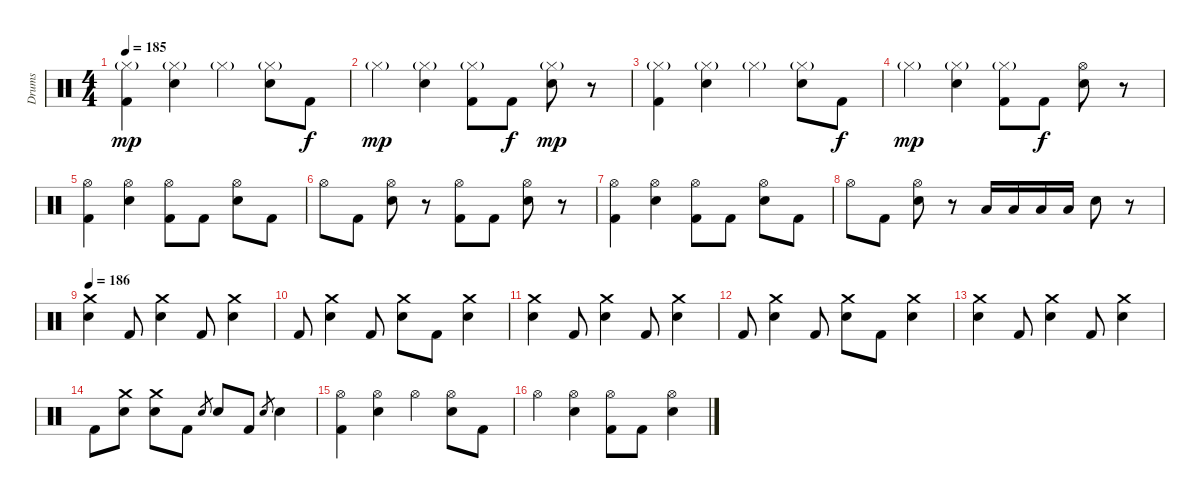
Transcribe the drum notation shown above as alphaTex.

\track ("Drums" "Drums") {instrument percussion}
\staff {score}
\articulation defaults
\ts (4 4)
\tempo 185
\clef neutral
\ks c
("Hi-Hat (closed)"{g} "Kick (hit) 2").4{dy mp} ("Hi-Hat (closed)"{g} "Snare (hit) 2").4 "Hi-Hat (closed)"{g}.4 ("Hi-Hat (closed)"{g} "Snare (hit) 2").8 "Kick (hit) 2".8{dy f} |
"Hi-Hat (closed)"{g}.4{dy mp} ("Hi-Hat (closed)"{g} "Snare (hit) 2").4 ("Hi-Hat (closed)"{g} "Kick (hit) 2").8 "Kick (hit) 2".8{dy f} ("Hi-Hat (closed)"{g} "Snare (hit) 2").8{dy mp} r.8 |
("Hi-Hat (closed)"{g} "Kick (hit) 2").4 ("Hi-Hat (closed)"{g} "Snare (hit) 2").4 "Hi-Hat (closed)"{g}.4 ("Hi-Hat (closed)"{g} "Snare (hit) 2").8 "Kick (hit) 2".8{dy f} |
"Hi-Hat (closed)"{g}.4{dy mp} ("Hi-Hat (closed)"{g} "Snare (hit) 2").4 ("Hi-Hat (closed)"{g} "Kick (hit) 2").8 "Kick (hit) 2".8{dy f} ("Hi-Hat (open)" "Snare (hit) 2").8 r.8 |
("Hi-Hat (open)" "Kick (hit) 2").4 ("Hi-Hat (open)" "Snare (hit) 2").4 ("Hi-Hat (open)" "Kick (hit) 2").8 "Kick (hit) 2".8 ("Hi-Hat (open)" "Snare (hit) 2").8 "Kick (hit) 2".8 |
"Hi-Hat (open)".8 "Kick (hit) 2".8 ("Hi-Hat (open)" "Snare (hit) 2").8 r.8 ("Hi-Hat (open)" "Kick (hit) 2").8 "Kick (hit) 2".8 ("Hi-Hat (open)" "Snare (hit) 2").8 r.8 |
("Hi-Hat (open)" "Kick (hit) 2").4 ("Hi-Hat (open)" "Snare (hit) 2").4 ("Hi-Hat (open)" "Kick (hit) 2").8 "Kick (hit) 2".8 ("Hi-Hat (open)" "Snare (hit) 2").8 "Kick (hit) 2".8 |
"Hi-Hat (open)".8 "Kick (hit) 2".8 ("Hi-Hat (open)" "Snare (hit) 2").8 r.8 "Low Tom (hit)".16 "Low Tom (hit)".16 "Low Tom (hit)".16 "Low Tom (hit)".16 "Snare (hit) 2".8 r.8 |
\tempo 186
("Crash medium (hit)" "Snare (hit) 2").4 "Kick (hit) 2".8 ("Crash medium (hit)" "Snare (hit) 2").4 "Kick (hit) 2".8 ("Crash medium (hit)" "Snare (hit) 2").4 |
"Kick (hit) 2".8 ("Crash medium (hit)" "Snare (hit) 2").4 "Kick (hit) 2".8 ("Crash medium (hit)" "Snare (hit) 2").8 "Kick (hit) 2".8 ("Crash medium (hit)" "Snare (hit) 2").4 |
("Crash medium (hit)" "Snare (hit) 2").4 "Kick (hit) 2".8 ("Crash medium (hit)" "Snare (hit) 2").4 "Kick (hit) 2".8 ("Crash medium (hit)" "Snare (hit) 2").4 |
"Kick (hit) 2".8 ("Crash medium (hit)" "Snare (hit) 2").4 "Kick (hit) 2".8 ("Crash medium (hit)" "Snare (hit) 2").8 "Kick (hit) 2".8 ("Crash medium (hit)" "Snare (hit) 2").4 |
("Crash medium (hit)" "Snare (hit) 2").4 "Kick (hit) 2".8 ("Crash medium (hit)" "Snare (hit) 2").4 "Kick (hit) 2".8 ("Crash medium (hit)" "Snare (hit) 2").4 |
"Kick (hit) 2".8 ("Crash medium (hit)" "Snare (hit) 2").8 ("Crash medium (hit)" "Snare (hit) 2").8 "Kick (hit) 2".8 "Snare (hit) 2".8{gr} "Snare (hit) 2".8 "Kick (hit) 2".8 "Snare (hit) 2".8{gr} "Snare (hit) 2".4 |
("Hi-Hat (open)" "Kick (hit) 2").4 ("Hi-Hat (open)" "Snare (hit) 2").4 "Hi-Hat (open)".4 ("Hi-Hat (open)" "Snare (hit) 2").8 "Kick (hit) 2".8 |
"Hi-Hat (open)".4 ("Hi-Hat (open)" "Snare (hit) 2").4 ("Hi-Hat (open)" "Kick (hit) 2").8 "Kick (hit) 2".8 ("Hi-Hat (open)" "Snare (hit) 2").4
